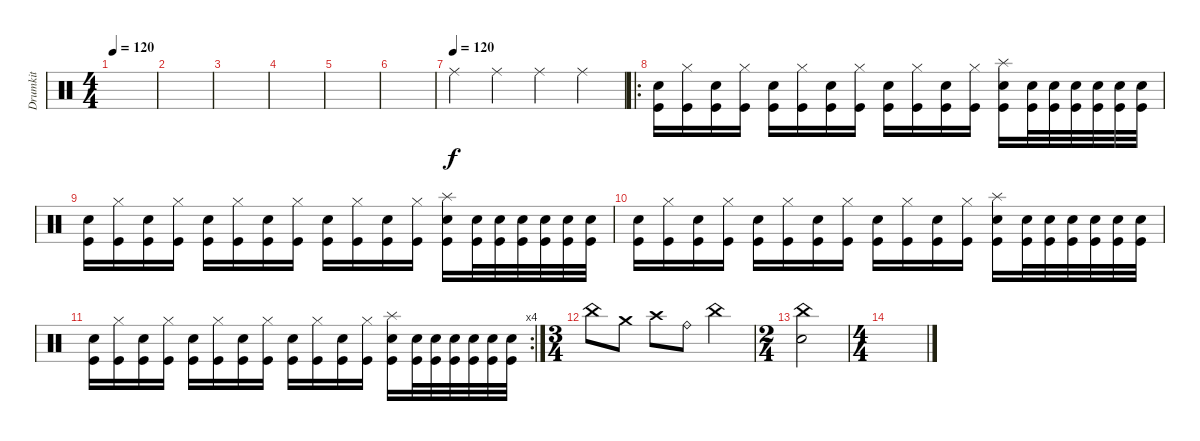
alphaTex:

\track ("Drumkit" "Drumkit") {instrument percussion}
\staff {score}
\articulation defaults
\ts (4 4)
\tempo 120
\clef neutral
\ks c
|
|
|
|
|
|
\tempo (120)
"Ride (middle)".4 "Ride (middle)".4 "Ride (middle)".4 "Ride (middle)".4 |
\ro
("Kick (hit)" "Snare (hit) 2").16 ("Kick (hit)" "Hi-Hat (closed)").16 ("Kick (hit)" "Snare (hit) 2").16 ("Kick (hit)" "Hi-Hat (closed)").16 ("Kick (hit)" "Snare (hit) 2").16 ("Kick (hit)" "Hi-Hat (closed)").16 ("Kick (hit)" "Snare (hit) 2").16 ("Kick (hit)" "Hi-Hat (closed)").16 ("Kick (hit)" "Snare (hit) 2").16 ("Kick (hit)" "Hi-Hat (closed)").16 ("Kick (hit)" "Snare (hit) 2").16 ("Kick (hit)" "Hi-Hat (closed)").16 ("Kick (hit)" "Snare (hit) 2" "Splash (hit)").16 ("Kick (hit)" "Snare (hit) 2").32 ("Kick (hit)" "Snare (hit) 2").32 ("Kick (hit)" "Snare (hit) 2").32 ("Kick (hit)" "Snare (hit) 2").32 ("Kick (hit)" "Snare (hit) 2").32 ("Kick (hit)" "Snare (hit) 2").32 |
("Kick (hit)" "Snare (hit) 2").16 ("Kick (hit)" "Hi-Hat (closed)").16 ("Kick (hit)" "Snare (hit) 2").16 ("Kick (hit)" "Hi-Hat (closed)").16 ("Kick (hit)" "Snare (hit) 2").16 ("Kick (hit)" "Hi-Hat (closed)").16 ("Kick (hit)" "Snare (hit) 2").16 ("Kick (hit)" "Hi-Hat (closed)").16 ("Kick (hit)" "Snare (hit) 2").16 ("Kick (hit)" "Hi-Hat (closed)").16 ("Kick (hit)" "Snare (hit) 2").16 ("Kick (hit)" "Hi-Hat (closed)").16 ("Kick (hit)" "Snare (hit) 2" "Splash (hit)").16 ("Kick (hit)" "Snare (hit) 2").32 ("Kick (hit)" "Snare (hit) 2").32 ("Kick (hit)" "Snare (hit) 2").32 ("Kick (hit)" "Snare (hit) 2").32 ("Kick (hit)" "Snare (hit) 2").32 ("Kick (hit)" "Snare (hit) 2").32 |
("Kick (hit)" "Snare (hit) 2").16 ("Kick (hit)" "Hi-Hat (closed)").16 ("Kick (hit)" "Snare (hit) 2").16 ("Kick (hit)" "Hi-Hat (closed)").16 ("Kick (hit)" "Snare (hit) 2").16 ("Kick (hit)" "Hi-Hat (closed)").16 ("Kick (hit)" "Snare (hit) 2").16 ("Kick (hit)" "Hi-Hat (closed)").16 ("Kick (hit)" "Snare (hit) 2").16 ("Kick (hit)" "Hi-Hat (closed)").16 ("Kick (hit)" "Snare (hit) 2").16 ("Kick (hit)" "Hi-Hat (closed)").16 ("Kick (hit)" "Snare (hit) 2" "Splash (hit)").16 ("Kick (hit)" "Snare (hit) 2").32 ("Kick (hit)" "Snare (hit) 2").32 ("Kick (hit)" "Snare (hit) 2").32 ("Kick (hit)" "Snare (hit) 2").32 ("Kick (hit)" "Snare (hit) 2").32 ("Kick (hit)" "Snare (hit) 2").32 |
\rc 4
("Kick (hit)" "Snare (hit) 2").16 ("Kick (hit)" "Hi-Hat (closed)").16 ("Kick (hit)" "Snare (hit) 2").16 ("Kick (hit)" "Hi-Hat (closed)").16 ("Kick (hit)" "Snare (hit) 2").16 ("Kick (hit)" "Hi-Hat (closed)").16 ("Kick (hit)" "Snare (hit) 2").16 ("Kick (hit)" "Hi-Hat (closed)").16 ("Kick (hit)" "Snare (hit) 2").16 ("Kick (hit)" "Hi-Hat (closed)").16 ("Kick (hit)" "Snare (hit) 2").16 ("Kick (hit)" "Hi-Hat (closed)").16 ("Kick (hit)" "Snare (hit) 2" "Splash (hit)").16 ("Kick (hit)" "Snare (hit) 2").32 ("Kick (hit)" "Snare (hit) 2").32 ("Kick (hit)" "Snare (hit) 2").32 ("Kick (hit)" "Snare (hit) 2").32 ("Kick (hit)" "Snare (hit) 2").32 ("Kick (hit)" "Snare (hit) 2").32 |
\ts (3 4)
"China (hit)".8 "Crash medium (hit)".8 "Crash high (hit)".8 "Ride (bell)".8 "China (hit)".4 |
\ts (2 4)
("Snare (hit) 2" "China (hit)").2 |
\ts (4 4)
